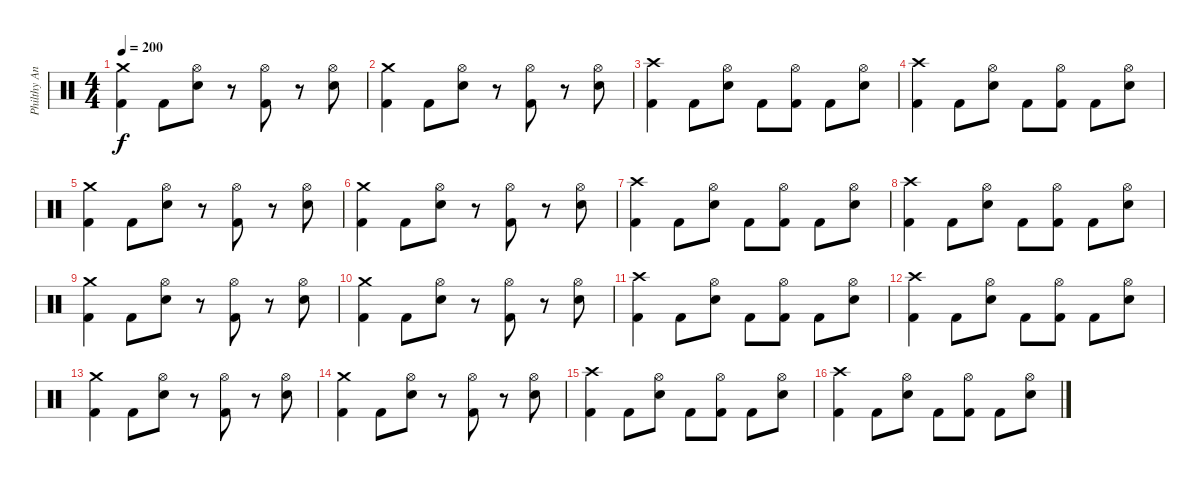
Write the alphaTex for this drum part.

\track ("Philthy Animal Taylor" "Philthy An") {instrument percussion}
\staff {score}
\articulation defaults
\ts (4 4)
\tempo 200
\clef neutral
\ks c
("Crash medium (hit)" "Kick (hit) 2").4{dy f} "Kick (hit) 2".8 ("Hi-Hat (open)" "Snare (hit) 2").8 r.8 ("Hi-Hat (open)" "Kick (hit) 2").8 r.8 ("Hi-Hat (open)" "Snare (hit) 2").8 |
("Crash medium (hit)" "Kick (hit) 2").4 "Kick (hit) 2".8 ("Hi-Hat (open)" "Snare (hit) 2").8 r.8 ("Hi-Hat (open)" "Kick (hit) 2").8 r.8 ("Hi-Hat (open)" "Snare (hit) 2").8 |
("Crash high (hit)" "Kick (hit) 2").4 "Kick (hit) 2".8 ("Hi-Hat (open)" "Snare (hit) 2").8 "Kick (hit) 2".8 ("Hi-Hat (open)" "Kick (hit) 2").8 "Kick (hit) 2".8 ("Hi-Hat (open)" "Snare (hit) 2").8 |
("Crash high (hit)" "Kick (hit) 2").4 "Kick (hit) 2".8 ("Hi-Hat (open)" "Snare (hit) 2").8 "Kick (hit) 2".8 ("Hi-Hat (open)" "Kick (hit) 2").8 "Kick (hit) 2".8 ("Hi-Hat (open)" "Snare (hit) 2").8 |
("Crash medium (hit)" "Kick (hit) 2").4 "Kick (hit) 2".8 ("Hi-Hat (open)" "Snare (hit) 2").8 r.8 ("Hi-Hat (open)" "Kick (hit) 2").8 r.8 ("Hi-Hat (open)" "Snare (hit) 2").8 |
("Crash medium (hit)" "Kick (hit) 2").4 "Kick (hit) 2".8 ("Hi-Hat (open)" "Snare (hit) 2").8 r.8 ("Hi-Hat (open)" "Kick (hit) 2").8 r.8 ("Hi-Hat (open)" "Snare (hit) 2").8 |
("Crash high (hit)" "Kick (hit) 2").4 "Kick (hit) 2".8 ("Hi-Hat (open)" "Snare (hit) 2").8 "Kick (hit) 2".8 ("Hi-Hat (open)" "Kick (hit) 2").8 "Kick (hit) 2".8 ("Hi-Hat (open)" "Snare (hit) 2").8 |
("Crash high (hit)" "Kick (hit) 2").4 "Kick (hit) 2".8 ("Hi-Hat (open)" "Snare (hit) 2").8 "Kick (hit) 2".8 ("Hi-Hat (open)" "Kick (hit) 2").8 "Kick (hit) 2".8 ("Hi-Hat (open)" "Snare (hit) 2").8 |
("Crash medium (hit)" "Kick (hit) 2").4 "Kick (hit) 2".8 ("Hi-Hat (open)" "Snare (hit) 2").8 r.8 ("Hi-Hat (open)" "Kick (hit) 2").8 r.8 ("Hi-Hat (open)" "Snare (hit) 2").8 |
("Crash medium (hit)" "Kick (hit) 2").4 "Kick (hit) 2".8 ("Hi-Hat (open)" "Snare (hit) 2").8 r.8 ("Hi-Hat (open)" "Kick (hit) 2").8 r.8 ("Hi-Hat (open)" "Snare (hit) 2").8 |
("Crash high (hit)" "Kick (hit) 2").4 "Kick (hit) 2".8 ("Hi-Hat (open)" "Snare (hit) 2").8 "Kick (hit) 2".8 ("Hi-Hat (open)" "Kick (hit) 2").8 "Kick (hit) 2".8 ("Hi-Hat (open)" "Snare (hit) 2").8 |
("Crash high (hit)" "Kick (hit) 2").4 "Kick (hit) 2".8 ("Hi-Hat (open)" "Snare (hit) 2").8 "Kick (hit) 2".8 ("Hi-Hat (open)" "Kick (hit) 2").8 "Kick (hit) 2".8 ("Hi-Hat (open)" "Snare (hit) 2").8 |
("Crash medium (hit)" "Kick (hit) 2").4{volume 4} "Kick (hit) 2".8 ("Hi-Hat (open)" "Snare (hit) 2").8 r.8 ("Hi-Hat (open)" "Kick (hit) 2").8 r.8 ("Hi-Hat (open)" "Snare (hit) 2").8 |
("Crash medium (hit)" "Kick (hit) 2").4 "Kick (hit) 2".8 ("Hi-Hat (open)" "Snare (hit) 2").8 r.8 ("Hi-Hat (open)" "Kick (hit) 2").8 r.8 ("Hi-Hat (open)" "Snare (hit) 2").8 |
("Crash high (hit)" "Kick (hit) 2").4 "Kick (hit) 2".8 ("Hi-Hat (open)" "Snare (hit) 2").8 "Kick (hit) 2".8 ("Hi-Hat (open)" "Kick (hit) 2").8 "Kick (hit) 2".8 ("Hi-Hat (open)" "Snare (hit) 2").8 |
("Crash high (hit)" "Kick (hit) 2").4 "Kick (hit) 2".8 ("Hi-Hat (open)" "Snare (hit) 2").8 "Kick (hit) 2".8 ("Hi-Hat (open)" "Kick (hit) 2").8 "Kick (hit) 2".8 ("Hi-Hat (open)" "Snare (hit) 2").8
